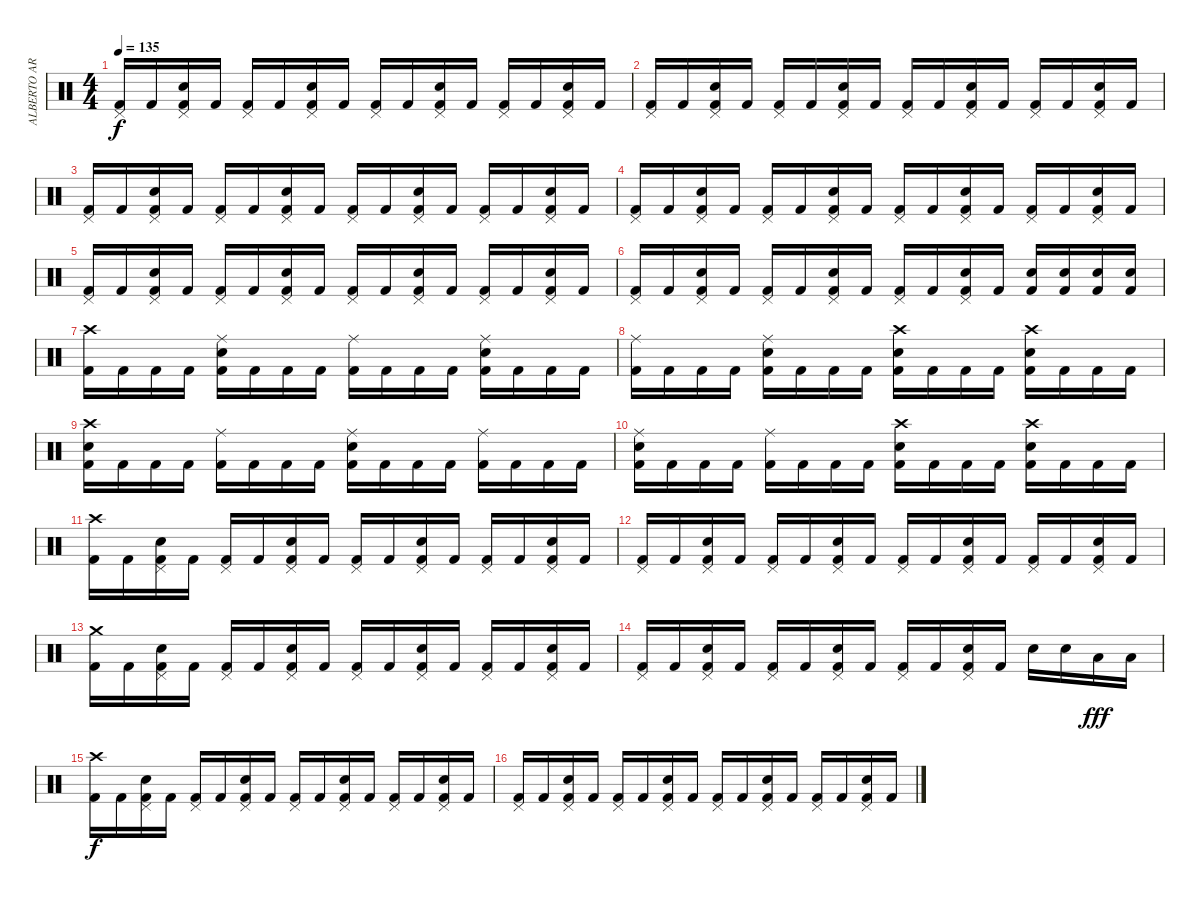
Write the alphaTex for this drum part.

\track ("ALBERTO ARDINES" "ALBERTO AR") {instrument percussion}
\staff {score}
\articulation defaults
\ts (4 4)
\tempo 135
\clef neutral
\ks c
("Pedal Hi-Hat (hit)" "Kick (hit) 2").16{dy f} "Kick (hit) 2".16 ("Pedal Hi-Hat (hit)" "Electric Snare (hit)" "Kick (hit) 2").16 "Kick (hit) 2".16 ("Pedal Hi-Hat (hit)" "Kick (hit) 2").16 "Kick (hit) 2".16 ("Pedal Hi-Hat (hit)" "Electric Snare (hit)" "Kick (hit) 2").16 "Kick (hit) 2".16 ("Pedal Hi-Hat (hit)" "Kick (hit) 2").16 "Kick (hit) 2".16 ("Pedal Hi-Hat (hit)" "Electric Snare (hit)" "Kick (hit) 2").16 "Kick (hit) 2".16 ("Pedal Hi-Hat (hit)" "Kick (hit) 2").16 "Kick (hit) 2".16 ("Pedal Hi-Hat (hit)" "Electric Snare (hit)" "Kick (hit) 2").16 "Kick (hit) 2".16 |
("Pedal Hi-Hat (hit)" "Kick (hit) 2").16 "Kick (hit) 2".16 ("Pedal Hi-Hat (hit)" "Electric Snare (hit)" "Kick (hit) 2").16 "Kick (hit) 2".16 ("Pedal Hi-Hat (hit)" "Kick (hit) 2").16 "Kick (hit) 2".16 ("Pedal Hi-Hat (hit)" "Electric Snare (hit)" "Kick (hit) 2").16 "Kick (hit) 2".16 ("Pedal Hi-Hat (hit)" "Kick (hit) 2").16 "Kick (hit) 2".16 ("Pedal Hi-Hat (hit)" "Electric Snare (hit)" "Kick (hit) 2").16 "Kick (hit) 2".16 ("Pedal Hi-Hat (hit)" "Kick (hit) 2").16 "Kick (hit) 2".16 ("Pedal Hi-Hat (hit)" "Electric Snare (hit)" "Kick (hit) 2").16 "Kick (hit) 2".16 |
("Pedal Hi-Hat (hit)" "Kick (hit) 2").16 "Kick (hit) 2".16 ("Pedal Hi-Hat (hit)" "Electric Snare (hit)" "Kick (hit) 2").16 "Kick (hit) 2".16 ("Pedal Hi-Hat (hit)" "Kick (hit) 2").16 "Kick (hit) 2".16 ("Pedal Hi-Hat (hit)" "Electric Snare (hit)" "Kick (hit) 2").16 "Kick (hit) 2".16 ("Pedal Hi-Hat (hit)" "Kick (hit) 2").16 "Kick (hit) 2".16 ("Pedal Hi-Hat (hit)" "Electric Snare (hit)" "Kick (hit) 2").16 "Kick (hit) 2".16 ("Pedal Hi-Hat (hit)" "Kick (hit) 2").16 "Kick (hit) 2".16 ("Pedal Hi-Hat (hit)" "Electric Snare (hit)" "Kick (hit) 2").16 "Kick (hit) 2".16 |
("Pedal Hi-Hat (hit)" "Kick (hit) 2").16 "Kick (hit) 2".16 ("Pedal Hi-Hat (hit)" "Electric Snare (hit)" "Kick (hit) 2").16 "Kick (hit) 2".16 ("Pedal Hi-Hat (hit)" "Kick (hit) 2").16 "Kick (hit) 2".16 ("Pedal Hi-Hat (hit)" "Electric Snare (hit)" "Kick (hit) 2").16 "Kick (hit) 2".16 ("Pedal Hi-Hat (hit)" "Kick (hit) 2").16 "Kick (hit) 2".16 ("Pedal Hi-Hat (hit)" "Electric Snare (hit)" "Kick (hit) 2").16 "Kick (hit) 2".16 ("Pedal Hi-Hat (hit)" "Kick (hit) 2").16 "Kick (hit) 2".16 ("Pedal Hi-Hat (hit)" "Electric Snare (hit)" "Kick (hit) 2").16 "Kick (hit) 2".16 |
("Pedal Hi-Hat (hit)" "Kick (hit) 2").16 "Kick (hit) 2".16 ("Pedal Hi-Hat (hit)" "Electric Snare (hit)" "Kick (hit) 2").16 "Kick (hit) 2".16 ("Pedal Hi-Hat (hit)" "Kick (hit) 2").16 "Kick (hit) 2".16 ("Pedal Hi-Hat (hit)" "Electric Snare (hit)" "Kick (hit) 2").16 "Kick (hit) 2".16 ("Pedal Hi-Hat (hit)" "Kick (hit) 2").16 "Kick (hit) 2".16 ("Pedal Hi-Hat (hit)" "Electric Snare (hit)" "Kick (hit) 2").16 "Kick (hit) 2".16 ("Pedal Hi-Hat (hit)" "Kick (hit) 2").16 "Kick (hit) 2".16 ("Pedal Hi-Hat (hit)" "Electric Snare (hit)" "Kick (hit) 2").16 "Kick (hit) 2".16 |
("Pedal Hi-Hat (hit)" "Kick (hit) 2").16 "Kick (hit) 2".16 ("Pedal Hi-Hat (hit)" "Electric Snare (hit)" "Kick (hit) 2").16 "Kick (hit) 2".16 ("Pedal Hi-Hat (hit)" "Kick (hit) 2").16 "Kick (hit) 2".16 ("Pedal Hi-Hat (hit)" "Electric Snare (hit)" "Kick (hit) 2").16 "Kick (hit) 2".16 ("Pedal Hi-Hat (hit)" "Kick (hit) 2").16 "Kick (hit) 2".16 ("Pedal Hi-Hat (hit)" "Electric Snare (hit)" "Kick (hit) 2").16 "Kick (hit) 2".16 ("Electric Snare (hit)" "Kick (hit) 2").16 ("Electric Snare (hit)" "Kick (hit) 2").16 ("Electric Snare (hit)" "Kick (hit) 2").16 ("Electric Snare (hit)" "Kick (hit) 2").16 |
("Crash high (hit)" "Kick (hit) 2").16 "Kick (hit) 2".16 "Kick (hit) 2".16 "Kick (hit) 2".16 ("Ride (middle)" "Electric Snare (hit)" "Kick (hit) 2").16 "Kick (hit) 2".16 "Kick (hit) 2".16 "Kick (hit) 2".16 ("Ride (middle)" "Kick (hit) 2").16 "Kick (hit) 2".16 "Kick (hit) 2".16 "Kick (hit) 2".16 ("Ride (middle)" "Electric Snare (hit)" "Kick (hit) 2").16 "Kick (hit) 2".16 "Kick (hit) 2".16 "Kick (hit) 2".16 |
("Ride (middle)" "Kick (hit) 2").16 "Kick (hit) 2".16 "Kick (hit) 2".16 "Kick (hit) 2".16 ("Ride (middle)" "Electric Snare (hit)" "Kick (hit) 2").16 "Kick (hit) 2".16 "Kick (hit) 2".16 "Kick (hit) 2".16 ("Crash high (hit)" "Electric Snare (hit)" "Kick (hit) 2").16 "Kick (hit) 2".16 "Kick (hit) 2".16 "Kick (hit) 2".16 ("Crash high (hit)" "Electric Snare (hit)" "Kick (hit) 2").16 "Kick (hit) 2".16 "Kick (hit) 2".16 "Kick (hit) 2".16 |
("Crash high (hit)" "Electric Snare (hit)" "Kick (hit) 2").16 "Kick (hit) 2".16 "Kick (hit) 2".16 "Kick (hit) 2".16 ("Ride (middle)" "Kick (hit) 2").16 "Kick (hit) 2".16 "Kick (hit) 2".16 "Kick (hit) 2".16 ("Ride (middle)" "Electric Snare (hit)" "Kick (hit) 2").16 "Kick (hit) 2".16 "Kick (hit) 2".16 "Kick (hit) 2".16 ("Ride (middle)" "Kick (hit) 2").16 "Kick (hit) 2".16 "Kick (hit) 2".16 "Kick (hit) 2".16 |
("Ride (middle)" "Electric Snare (hit)" "Kick (hit) 2").16 "Kick (hit) 2".16 "Kick (hit) 2".16 "Kick (hit) 2".16 ("Ride (middle)" "Kick (hit) 2").16 "Kick (hit) 2".16 "Kick (hit) 2".16 "Kick (hit) 2".16 ("Crash high (hit)" "Electric Snare (hit)" "Kick (hit) 2").16 "Kick (hit) 2".16 "Kick (hit) 2".16 "Kick (hit) 2".16 ("Crash high (hit)" "Electric Snare (hit)" "Kick (hit) 2").16 "Kick (hit) 2".16 "Kick (hit) 2".16 "Kick (hit) 2".16 |
("Crash high (hit)" "Kick (hit) 2").16 "Kick (hit) 2".16 ("Pedal Hi-Hat (hit)" "Electric Snare (hit)" "Kick (hit) 2").16 "Kick (hit) 2".16 ("Pedal Hi-Hat (hit)" "Kick (hit) 2").16 "Kick (hit) 2".16 ("Pedal Hi-Hat (hit)" "Electric Snare (hit)" "Kick (hit) 2").16 "Kick (hit) 2".16 ("Pedal Hi-Hat (hit)" "Kick (hit) 2").16 "Kick (hit) 2".16 ("Pedal Hi-Hat (hit)" "Electric Snare (hit)" "Kick (hit) 2").16 "Kick (hit) 2".16 ("Pedal Hi-Hat (hit)" "Kick (hit) 2").16 "Kick (hit) 2".16 ("Pedal Hi-Hat (hit)" "Electric Snare (hit)" "Kick (hit) 2").16 "Kick (hit) 2".16 |
("Pedal Hi-Hat (hit)" "Kick (hit) 2").16 "Kick (hit) 2".16 ("Pedal Hi-Hat (hit)" "Electric Snare (hit)" "Kick (hit) 2").16 "Kick (hit) 2".16 ("Pedal Hi-Hat (hit)" "Kick (hit) 2").16 "Kick (hit) 2".16 ("Pedal Hi-Hat (hit)" "Electric Snare (hit)" "Kick (hit) 2").16 "Kick (hit) 2".16 ("Pedal Hi-Hat (hit)" "Kick (hit) 2").16 "Kick (hit) 2".16 ("Pedal Hi-Hat (hit)" "Electric Snare (hit)" "Kick (hit) 2").16 "Kick (hit) 2".16 ("Pedal Hi-Hat (hit)" "Kick (hit) 2").16 "Kick (hit) 2".16 ("Pedal Hi-Hat (hit)" "Electric Snare (hit)" "Kick (hit) 2").16 "Kick (hit) 2".16 |
("Crash medium (hit)" "Kick (hit) 2").16 "Kick (hit) 2".16 ("Pedal Hi-Hat (hit)" "Electric Snare (hit)" "Kick (hit) 2").16 "Kick (hit) 2".16 ("Pedal Hi-Hat (hit)" "Kick (hit) 2").16 "Kick (hit) 2".16 ("Pedal Hi-Hat (hit)" "Electric Snare (hit)" "Kick (hit) 2").16 "Kick (hit) 2".16 ("Pedal Hi-Hat (hit)" "Kick (hit) 2").16 "Kick (hit) 2".16 ("Pedal Hi-Hat (hit)" "Electric Snare (hit)" "Kick (hit) 2").16 "Kick (hit) 2".16 ("Pedal Hi-Hat (hit)" "Kick (hit) 2").16 "Kick (hit) 2".16 ("Pedal Hi-Hat (hit)" "Electric Snare (hit)" "Kick (hit) 2").16 "Kick (hit) 2".16 |
("Pedal Hi-Hat (hit)" "Kick (hit) 2").16 "Kick (hit) 2".16 ("Pedal Hi-Hat (hit)" "Electric Snare (hit)" "Kick (hit) 2").16 "Kick (hit) 2".16 ("Pedal Hi-Hat (hit)" "Kick (hit) 2").16 "Kick (hit) 2".16 ("Pedal Hi-Hat (hit)" "Electric Snare (hit)" "Kick (hit) 2").16 "Kick (hit) 2".16 ("Pedal Hi-Hat (hit)" "Kick (hit) 2").16 "Kick (hit) 2".16 ("Pedal Hi-Hat (hit)" "Electric Snare (hit)" "Kick (hit) 2").16 "Kick (hit) 2".16 "Electric Snare (hit)".16 "Electric Snare (hit)".16 "Low Tom (hit)".16{dy fff} "Low Tom (hit)".16 |
("Crash high (hit)" "Kick (hit) 2").16{dy f} "Kick (hit) 2".16 ("Pedal Hi-Hat (hit)" "Electric Snare (hit)" "Kick (hit) 2").16 "Kick (hit) 2".16 ("Pedal Hi-Hat (hit)" "Kick (hit) 2").16 "Kick (hit) 2".16 ("Pedal Hi-Hat (hit)" "Electric Snare (hit)" "Kick (hit) 2").16 "Kick (hit) 2".16 ("Pedal Hi-Hat (hit)" "Kick (hit) 2").16 "Kick (hit) 2".16 ("Pedal Hi-Hat (hit)" "Electric Snare (hit)" "Kick (hit) 2").16 "Kick (hit) 2".16 ("Pedal Hi-Hat (hit)" "Kick (hit) 2").16 "Kick (hit) 2".16 ("Pedal Hi-Hat (hit)" "Electric Snare (hit)" "Kick (hit) 2").16 "Kick (hit) 2".16 |
("Pedal Hi-Hat (hit)" "Kick (hit) 2").16 "Kick (hit) 2".16 ("Pedal Hi-Hat (hit)" "Electric Snare (hit)" "Kick (hit) 2").16 "Kick (hit) 2".16 ("Pedal Hi-Hat (hit)" "Kick (hit) 2").16 "Kick (hit) 2".16 ("Pedal Hi-Hat (hit)" "Electric Snare (hit)" "Kick (hit) 2").16 "Kick (hit) 2".16 ("Pedal Hi-Hat (hit)" "Kick (hit) 2").16 "Kick (hit) 2".16 ("Pedal Hi-Hat (hit)" "Electric Snare (hit)" "Kick (hit) 2").16 "Kick (hit) 2".16 ("Pedal Hi-Hat (hit)" "Kick (hit) 2").16 "Kick (hit) 2".16 ("Pedal Hi-Hat (hit)" "Electric Snare (hit)" "Kick (hit) 2").16 "Kick (hit) 2".16
